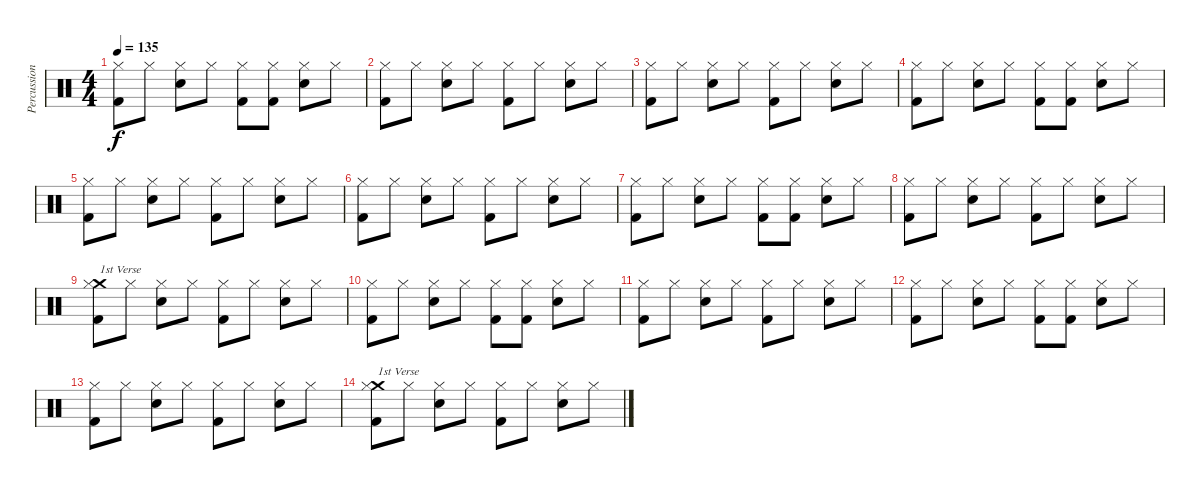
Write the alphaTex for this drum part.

\track ("Percussion" "Percussion") {instrument percussion}
\staff {score}
\articulation defaults
\ts (4 4)
\tempo 135
\clef neutral
\ks c
("Hi-Hat (closed)" "Kick (hit) 2").8{dy f} "Hi-Hat (closed)".8 ("Hi-Hat (closed)" "Snare (hit) 2").8 "Hi-Hat (closed)".8 ("Hi-Hat (closed)" "Kick (hit) 2").8 ("Hi-Hat (closed)" "Kick (hit) 2").8 ("Hi-Hat (closed)" "Snare (hit) 2").8 "Hi-Hat (closed)".8 |
("Hi-Hat (closed)" "Kick (hit) 2").8 "Hi-Hat (closed)".8 ("Hi-Hat (closed)" "Snare (hit) 2").8 "Hi-Hat (closed)".8 ("Hi-Hat (closed)" "Kick (hit) 2").8 "Hi-Hat (closed)".8 ("Hi-Hat (closed)" "Snare (hit) 2").8 "Hi-Hat (closed)".8 |
("Hi-Hat (closed)" "Kick (hit) 2").8 "Hi-Hat (closed)".8 ("Hi-Hat (closed)" "Snare (hit) 2").8 "Hi-Hat (closed)".8 ("Hi-Hat (closed)" "Kick (hit) 2").8 "Hi-Hat (closed)".8 ("Hi-Hat (closed)" "Snare (hit) 2").8 "Hi-Hat (closed)".8 |
("Hi-Hat (closed)" "Kick (hit) 2").8 "Hi-Hat (closed)".8 ("Hi-Hat (closed)" "Snare (hit) 2").8 "Hi-Hat (closed)".8 ("Hi-Hat (closed)" "Kick (hit) 2").8 ("Hi-Hat (closed)" "Kick (hit) 2").8 ("Hi-Hat (closed)" "Snare (hit) 2").8 "Hi-Hat (closed)".8 |
("Hi-Hat (closed)" "Kick (hit) 2").8 "Hi-Hat (closed)".8 ("Hi-Hat (closed)" "Snare (hit) 2").8 "Hi-Hat (closed)".8 ("Hi-Hat (closed)" "Kick (hit) 2").8 "Hi-Hat (closed)".8 ("Hi-Hat (closed)" "Snare (hit) 2").8 "Hi-Hat (closed)".8 |
("Hi-Hat (closed)" "Kick (hit) 2").8 "Hi-Hat (closed)".8 ("Hi-Hat (closed)" "Snare (hit) 2").8 "Hi-Hat (closed)".8 ("Hi-Hat (closed)" "Kick (hit) 2").8 "Hi-Hat (closed)".8 ("Hi-Hat (closed)" "Snare (hit) 2").8 "Hi-Hat (closed)".8 |
("Hi-Hat (closed)" "Kick (hit) 2").8 "Hi-Hat (closed)".8 ("Hi-Hat (closed)" "Snare (hit) 2").8 "Hi-Hat (closed)".8 ("Hi-Hat (closed)" "Kick (hit) 2").8 ("Hi-Hat (closed)" "Kick (hit) 2").8 ("Hi-Hat (closed)" "Snare (hit) 2").8 "Hi-Hat (closed)".8 |
("Hi-Hat (closed)" "Kick (hit) 2").8 "Hi-Hat (closed)".8 ("Hi-Hat (closed)" "Snare (hit) 2").8 "Hi-Hat (closed)".8 ("Hi-Hat (closed)" "Kick (hit) 2").8 "Hi-Hat (closed)".8 ("Hi-Hat (closed)" "Snare (hit) 2").8 "Hi-Hat (closed)".8 |
("Crash medium (hit)" "Hi-Hat (closed)" "Kick (hit) 2").8{txt "1st Verse"} "Hi-Hat (closed)".8 ("Hi-Hat (closed)" "Snare (hit) 2").8 "Hi-Hat (closed)".8 ("Hi-Hat (closed)" "Kick (hit) 2").8 "Hi-Hat (closed)".8 ("Hi-Hat (closed)" "Snare (hit) 2").8 "Hi-Hat (closed)".8 |
("Hi-Hat (closed)" "Kick (hit) 2").8 "Hi-Hat (closed)".8 ("Hi-Hat (closed)" "Snare (hit) 2").8 "Hi-Hat (closed)".8 ("Hi-Hat (closed)" "Kick (hit) 2").8 ("Hi-Hat (closed)" "Kick (hit) 2").8 ("Hi-Hat (closed)" "Snare (hit) 2").8 "Hi-Hat (closed)".8 |
("Hi-Hat (closed)" "Kick (hit) 2").8 "Hi-Hat (closed)".8 ("Hi-Hat (closed)" "Snare (hit) 2").8 "Hi-Hat (closed)".8 ("Hi-Hat (closed)" "Kick (hit) 2").8 "Hi-Hat (closed)".8 ("Hi-Hat (closed)" "Snare (hit) 2").8 "Hi-Hat (closed)".8 |
("Hi-Hat (closed)" "Kick (hit) 2").8 "Hi-Hat (closed)".8 ("Hi-Hat (closed)" "Snare (hit) 2").8 "Hi-Hat (closed)".8 ("Hi-Hat (closed)" "Kick (hit) 2").8 ("Hi-Hat (closed)" "Kick (hit) 2").8 ("Hi-Hat (closed)" "Snare (hit) 2").8 "Hi-Hat (closed)".8 |
("Hi-Hat (closed)" "Kick (hit) 2").8 "Hi-Hat (closed)".8 ("Hi-Hat (closed)" "Snare (hit) 2").8 "Hi-Hat (closed)".8 ("Hi-Hat (closed)" "Kick (hit) 2").8 "Hi-Hat (closed)".8 ("Hi-Hat (closed)" "Snare (hit) 2").8 "Hi-Hat (closed)".8 |
("Crash medium (hit)" "Hi-Hat (closed)" "Kick (hit) 2").8{txt "1st Verse"} "Hi-Hat (closed)".8 ("Hi-Hat (closed)" "Snare (hit) 2").8 "Hi-Hat (closed)".8 ("Hi-Hat (closed)" "Kick (hit) 2").8 "Hi-Hat (closed)".8 ("Hi-Hat (closed)" "Snare (hit) 2").8 "Hi-Hat (closed)".8
